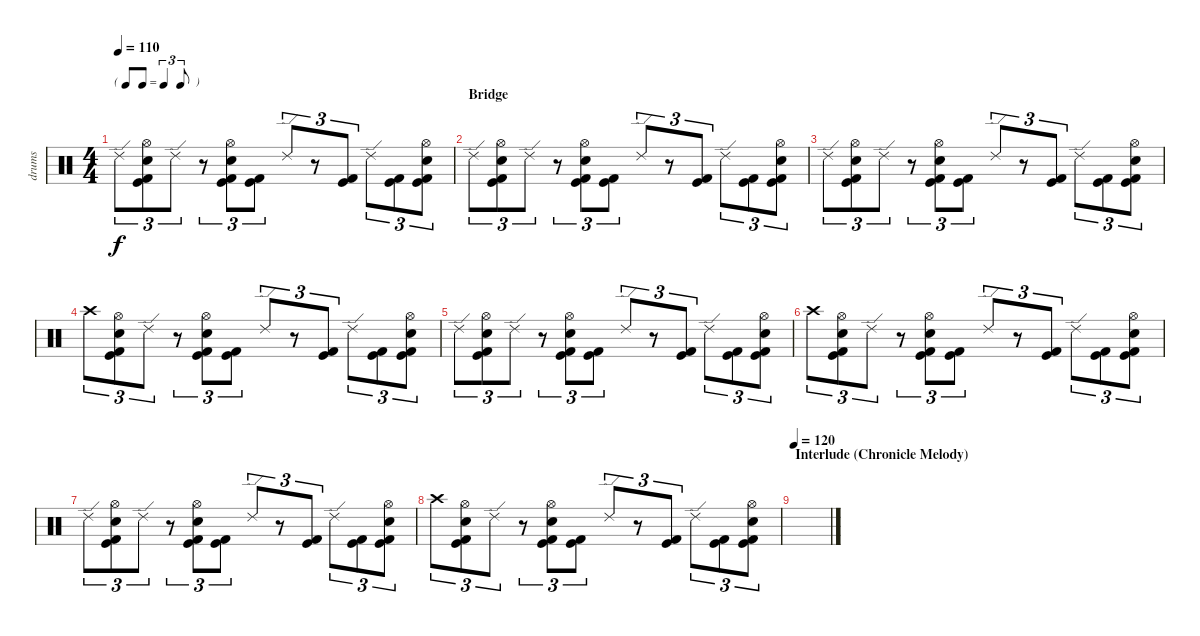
\track ("drums" "drums") {instrument percussion}
\staff {score}
\articulation defaults
\ts (4 4)
\tf triplet8th
\tempo 110
\clef neutral
\ks c "Ride (edge) 2".8{tu (3 2) dy f}
("Hi-Hat (open)" "Electric Snare (hit)" "Kick (hit) 2" "Kick (hit)").8{tu (3 2)} "Ride (edge) 2".8{tu (3 2)} r.8{tu (3 2)} ("Hi-Hat (open)" "Electric Snare (hit)" "Kick (hit) 2" "Kick (hit)").8{tu (3 2)} ("Kick (hit) 2" "Kick (hit)").8{tu (3 2)} "Ride (edge) 2".8{tu (3 2)} r.8{tu (3 2)} ("Kick (hit) 2" "Kick (hit)").8{tu (3 2)} "Ride (edge) 2".8{tu (3 2)} ("Kick (hit) 2" "Kick (hit)").8{tu (3 2)} ("Hi-Hat (open)" "Electric Snare (hit)" "Kick (hit) 2" "Kick (hit)").8{tu (3 2)} |
\section ("" "Bridge")
"Ride (edge) 2".8{tu (3 2)} ("Hi-Hat (open)" "Electric Snare (hit)" "Kick (hit) 2" "Kick (hit)").8{tu (3 2)} "Ride (edge) 2".8{tu (3 2)} r.8{tu (3 2)} ("Hi-Hat (open)" "Electric Snare (hit)" "Kick (hit) 2" "Kick (hit)").8{tu (3 2)} ("Kick (hit) 2" "Kick (hit)").8{tu (3 2)} "Ride (edge) 2".8{tu (3 2)} r.8{tu (3 2)} ("Kick (hit) 2" "Kick (hit)").8{tu (3 2)} "Ride (edge) 2".8{tu (3 2)} ("Kick (hit) 2" "Kick (hit)").8{tu (3 2)} ("Hi-Hat (open)" "Electric Snare (hit)" "Kick (hit) 2" "Kick (hit)").8{tu (3 2)} |
"Ride (edge) 2".8{tu (3 2)} ("Hi-Hat (open)" "Electric Snare (hit)" "Kick (hit) 2" "Kick (hit)").8{tu (3 2)} "Ride (edge) 2".8{tu (3 2)} r.8{tu (3 2)} ("Hi-Hat (open)" "Electric Snare (hit)" "Kick (hit) 2" "Kick (hit)").8{tu (3 2)} ("Kick (hit) 2" "Kick (hit)").8{tu (3 2)} "Ride (edge) 2".8{tu (3 2)} r.8{tu (3 2)} ("Kick (hit) 2" "Kick (hit)").8{tu (3 2)} "Ride (edge) 2".8{tu (3 2)} ("Kick (hit) 2" "Kick (hit)").8{tu (3 2)} ("Hi-Hat (open)" "Electric Snare (hit)" "Kick (hit) 2" "Kick (hit)").8{tu (3 2)} |
"Crash high (hit)".8{tu (3 2)} ("Hi-Hat (open)" "Electric Snare (hit)" "Kick (hit) 2" "Kick (hit)").8{tu (3 2)} "Ride (edge) 2".8{tu (3 2)} r.8{tu (3 2)} ("Hi-Hat (open)" "Electric Snare (hit)" "Kick (hit) 2" "Kick (hit)").8{tu (3 2)} ("Kick (hit) 2" "Kick (hit)").8{tu (3 2)} "Ride (edge) 2".8{tu (3 2)} r.8{tu (3 2)} ("Kick (hit) 2" "Kick (hit)").8{tu (3 2)} "Ride (edge) 2".8{tu (3 2)} ("Kick (hit) 2" "Kick (hit)").8{tu (3 2)} ("Hi-Hat (open)" "Electric Snare (hit)" "Kick (hit) 2" "Kick (hit)").8{tu (3 2)} |
"Ride (edge) 2".8{tu (3 2)} ("Hi-Hat (open)" "Electric Snare (hit)" "Kick (hit) 2" "Kick (hit)").8{tu (3 2)} "Ride (edge) 2".8{tu (3 2)} r.8{tu (3 2)} ("Hi-Hat (open)" "Electric Snare (hit)" "Kick (hit) 2" "Kick (hit)").8{tu (3 2)} ("Kick (hit) 2" "Kick (hit)").8{tu (3 2)} "Ride (edge) 2".8{tu (3 2)} r.8{tu (3 2)} ("Kick (hit) 2" "Kick (hit)").8{tu (3 2)} "Ride (edge) 2".8{tu (3 2)} ("Kick (hit) 2" "Kick (hit)").8{tu (3 2)} ("Hi-Hat (open)" "Electric Snare (hit)" "Kick (hit) 2" "Kick (hit)").8{tu (3 2)} |
"Crash high (hit)".8{tu (3 2)} ("Hi-Hat (open)" "Electric Snare (hit)" "Kick (hit) 2" "Kick (hit)").8{tu (3 2)} "Ride (edge) 2".8{tu (3 2)} r.8{tu (3 2)} ("Hi-Hat (open)" "Electric Snare (hit)" "Kick (hit) 2" "Kick (hit)").8{tu (3 2)} ("Kick (hit) 2" "Kick (hit)").8{tu (3 2)} "Ride (edge) 2".8{tu (3 2)} r.8{tu (3 2)} ("Kick (hit) 2" "Kick (hit)").8{tu (3 2)} "Ride (edge) 2".8{tu (3 2)} ("Kick (hit) 2" "Kick (hit)").8{tu (3 2)} ("Hi-Hat (open)" "Electric Snare (hit)" "Kick (hit) 2" "Kick (hit)").8{tu (3 2)} |
"Ride (edge) 2".8{tu (3 2)} ("Hi-Hat (open)" "Electric Snare (hit)" "Kick (hit) 2" "Kick (hit)").8{tu (3 2)} "Ride (edge) 2".8{tu (3 2)} r.8{tu (3 2)} ("Hi-Hat (open)" "Electric Snare (hit)" "Kick (hit) 2" "Kick (hit)").8{tu (3 2)} ("Kick (hit) 2" "Kick (hit)").8{tu (3 2)} "Ride (edge) 2".8{tu (3 2)} r.8{tu (3 2)} ("Kick (hit) 2" "Kick (hit)").8{tu (3 2)} "Ride (edge) 2".8{tu (3 2)} ("Kick (hit) 2" "Kick (hit)").8{tu (3 2)} ("Hi-Hat (open)" "Electric Snare (hit)" "Kick (hit) 2" "Kick (hit)").8{tu (3 2)} |
"Crash high (hit)".8{tu (3 2)} ("Hi-Hat (open)" "Electric Snare (hit)" "Kick (hit) 2" "Kick (hit)").8{tu (3 2)} "Ride (edge) 2".8{tu (3 2)} r.8{tu (3 2)} ("Hi-Hat (open)" "Electric Snare (hit)" "Kick (hit) 2" "Kick (hit)").8{tu (3 2)} ("Kick (hit) 2" "Kick (hit)").8{tu (3 2)} "Ride (edge) 2".8{tu (3 2)} r.8{tu (3 2)} ("Kick (hit) 2" "Kick (hit)").8{tu (3 2)} "Ride (edge) 2".8{tu (3 2)} ("Kick (hit) 2" "Kick (hit)").8{tu (3 2)} ("Hi-Hat (open)" "Electric Snare (hit)" "Kick (hit) 2" "Kick (hit)").8{tu (3 2)} |
\section ("" "Interlude (Chronicle Melody)")
\tempo 120
